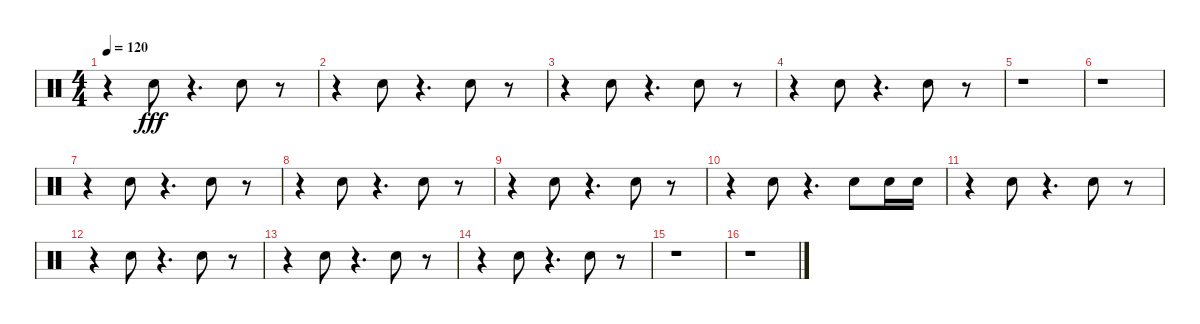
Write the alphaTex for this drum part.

\track "" {instrument percussion}
\staff {score}
\articulation defaults
\ts (4 4)
\tempo 120
\clef neutral
\ks c
r.4{dy fff} "Hand Clap (hit)".8 r.4{d} "Hand Clap (hit)".8 r.8 |
r.4 "Hand Clap (hit)".8 r.4{d} "Hand Clap (hit)".8 r.8 |
r.4 "Hand Clap (hit)".8 r.4{d} "Hand Clap (hit)".8 r.8 |
r.4 "Hand Clap (hit)".8 r.4{d} "Hand Clap (hit)".8 r.8 |
r.1 |
r.1 |
r.4 "Hand Clap (hit)".8 r.4{d} "Hand Clap (hit)".8 r.8 |
r.4 "Hand Clap (hit)".8 r.4{d} "Hand Clap (hit)".8 r.8 |
r.4 "Hand Clap (hit)".8 r.4{d} "Hand Clap (hit)".8 r.8 |
r.4 "Hand Clap (hit)".8 r.4{d} "Hand Clap (hit)".8 "Hand Clap (hit)".16 "Hand Clap (hit)".16 |
r.4 "Hand Clap (hit)".8 r.4{d} "Hand Clap (hit)".8 r.8 |
r.4 "Hand Clap (hit)".8 r.4{d} "Hand Clap (hit)".8 r.8 |
r.4 "Hand Clap (hit)".8 r.4{d} "Hand Clap (hit)".8 r.8 |
r.4 "Hand Clap (hit)".8 r.4{d} "Hand Clap (hit)".8 r.8 |
r.1 |
r.1
